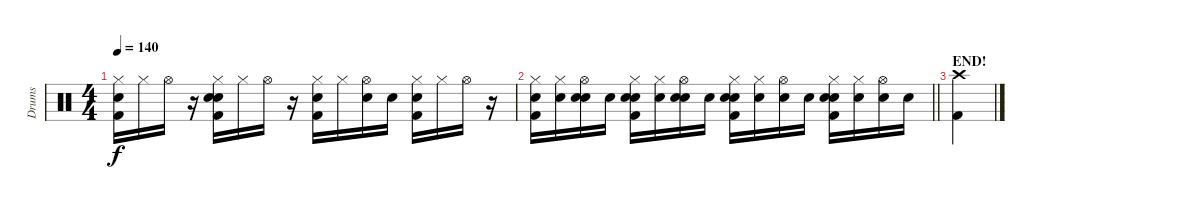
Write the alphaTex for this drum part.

\track ("Drums" "Drums") {instrument percussion}
\staff {score}
\articulation defaults
\ts (4 4)
\tempo 140
\clef neutral
\ks c
("Hi-Hat (closed)" "Hand Clap (hit)" "Kick (hit) 2").16{dy f} "Hi-Hat (closed)".16 "Hi-Hat (open)".16 r.16 ("Hi-Hat (closed)" "Hand Clap (hit)" "Snare (hit) 2" "Kick (hit) 2").16 "Hi-Hat (closed)".16 "Hi-Hat (open)".16 r.16 ("Hi-Hat (closed)" "Hand Clap (hit)" "Kick (hit) 2").16 "Hi-Hat (closed)".16 ("Hi-Hat (open)" "Hand Clap (hit)").16 "Hand Clap (hit)".16 ("Hi-Hat (closed)" "Snare (hit) 2" "Kick (hit) 2").16 "Hi-Hat (closed)".16 "Hi-Hat (open)".16 r.16 |
\barLineRight lightlight
("Hi-Hat (closed)" "Snare (hit) 2" "Kick (hit) 2").16 ("Hi-Hat (closed)" "Snare (hit) 2").16 ("Hi-Hat (open)" "Hand Clap (hit)" "Snare (hit) 2").16 "Snare (hit) 2".16 ("Hi-Hat (closed)" "Hand Clap (hit)" "Snare (hit) 2" "Kick (hit) 2").16 ("Hi-Hat (closed)" "Snare (hit) 2").16 ("Hi-Hat (open)" "Hand Clap (hit)" "Snare (hit) 2").16 "Snare (hit) 2".16 ("Hi-Hat (closed)" "Hand Clap (hit)" "Snare (hit) 2" "Kick (hit) 2").16 ("Hi-Hat (closed)" "Snare (hit) 2").16 ("Hi-Hat (open)" "Snare (hit) 2").16 "Snare (hit) 2".16 ("Hi-Hat (closed)" "Hand Clap (hit)" "Snare (hit) 2" "Kick (hit) 2").16 ("Hi-Hat (closed)" "Snare (hit) 2").16 ("Hi-Hat (open)" "Snare (hit) 2").16 "Snare (hit) 2".16 |
\section ("" "END!")
("Crash high (hit)" "Kick (hit) 2").4
